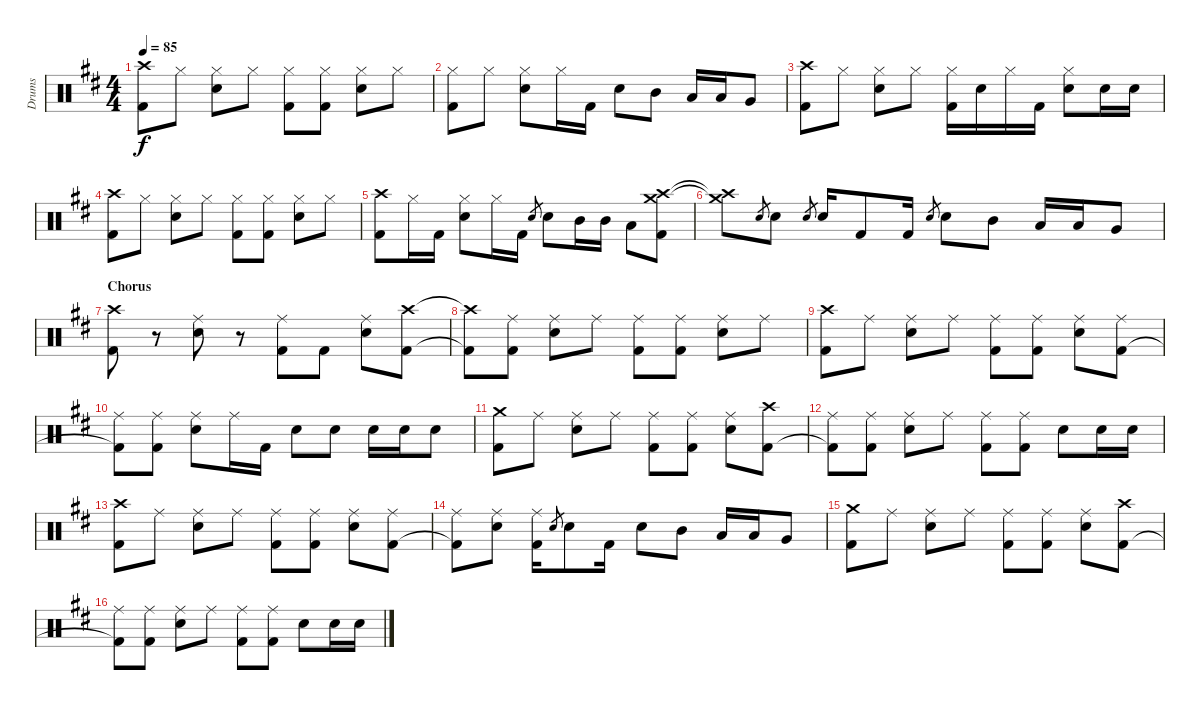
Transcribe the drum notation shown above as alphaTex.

\track ("Drums" "Drums") {instrument percussion}
\staff {score}
\articulation defaults
\ts (4 4)
\tempo 85
\clef neutral
\ks d
("Crash high (hit)" "Kick (hit) 2").8{dy f} "Hi-Hat (closed)".8 ("Hi-Hat (closed)" "Snare (hit) 2").8 "Hi-Hat (closed)".8 ("Hi-Hat (closed)" "Kick (hit) 2").8 ("Hi-Hat (closed)" "Kick (hit) 2").8 ("Hi-Hat (closed)" "Snare (hit) 2").8 "Hi-Hat (closed)".8 |
("Hi-Hat (closed)" "Kick (hit) 2").8 "Hi-Hat (closed)".8 ("Hi-Hat (closed)" "Snare (hit) 2").8 "Hi-Hat (closed)".16 "Kick (hit) 2".16 "Snare (hit) 2".8 "Mid Tom (hit)".8 "Low Tom (hit)".16 "Low Tom (hit)".16 "Very Low Tom (hit)".8 |
("Crash high (hit)" "Kick (hit) 2").8 "Hi-Hat (closed)".8 ("Hi-Hat (closed)" "Snare (hit) 2").8 "Hi-Hat (closed)".8 ("Hi-Hat (closed)" "Kick (hit) 2").16 "Snare (hit) 2".16 "Hi-Hat (closed)".16 "Kick (hit) 2".16 ("Hi-Hat (closed)" "Snare (hit) 2").8 "Snare (hit) 2".16 "Snare (hit) 2".16 |
("Crash high (hit)" "Kick (hit) 2").8 "Hi-Hat (closed)".8 ("Hi-Hat (closed)" "Snare (hit) 2").8 "Hi-Hat (closed)".8 ("Hi-Hat (closed)" "Kick (hit) 2").8 ("Hi-Hat (closed)" "Kick (hit) 2").8 ("Hi-Hat (closed)" "Snare (hit) 2").8 "Hi-Hat (closed)".8 |
("Crash high (hit)" "Kick (hit) 2").8 "Hi-Hat (closed)".16 "Kick (hit) 2".16 ("Hi-Hat (closed)" "Snare (hit) 2").8 "Hi-Hat (closed)".16 "Kick (hit) 2".16 "Snare (hit) 2".8{gr} "Snare (hit) 2".8 "Mid Tom (hit)".16 "Mid Tom (hit)".16 "Low Tom (hit)".8 ("Crash medium (hit)" "Crash high (hit)" "Kick (hit) 2").8 |
("Crash medium (hit)"{t} "Crash high (hit)"{t}).8 "Snare (hit) 2".8{gr} "Snare (hit) 2".8 "Snare (hit) 2".8{gr} "Snare (hit) 2".16 "Kick (hit) 2".8 "Kick (hit) 2".16 "Snare (hit) 2".8{gr} "Snare (hit) 2".8 "Mid Tom (hit)".8 "Low Tom (hit)".16 "Low Tom (hit)".16 "Very Low Tom (hit)".8 |
\section ("" "Chorus")
("Crash high (hit)" "Kick (hit) 2").8 r.8 ("Ride (middle)" "Snare (hit) 2").8 r.8 ("Ride (middle)" "Kick (hit) 2").8 "Kick (hit) 2".8 ("Ride (middle)" "Snare (hit) 2").8 ("Crash high (hit)" "Kick (hit) 2").8 |
("Crash high (hit)"{t} "Kick (hit) 2"{t}).8 ("Ride (middle)" "Kick (hit) 2").8 ("Ride (middle)" "Snare (hit) 2").8 "Ride (middle)".8 ("Ride (middle)" "Kick (hit) 2").8 ("Ride (middle)" "Kick (hit) 2").8 ("Ride (middle)" "Snare (hit) 2").8 "Ride (middle)".8 |
("Crash high (hit)" "Kick (hit) 2").8 "Ride (middle)".8 ("Ride (middle)" "Snare (hit) 2").8 "Ride (middle)".8 ("Ride (middle)" "Kick (hit) 2").8 ("Ride (middle)" "Kick (hit) 2").8 ("Ride (middle)" "Snare (hit) 2").8 ("Ride (middle)" "Kick (hit) 2").8 |
("Ride (middle)" "Kick (hit) 2"{t}).8 ("Ride (middle)" "Kick (hit) 2").8 ("Ride (middle)" "Snare (hit) 2").8 "Ride (middle)".16 "Kick (hit) 2".16 "Snare (hit) 2".8 "Snare (hit) 2".8 "Snare (hit) 2".16 "Snare (hit) 2".16 "Snare (hit) 2".8 |
("Crash medium (hit)" "Kick (hit) 2").8 "Ride (middle)".8 ("Ride (middle)" "Snare (hit) 2").8 "Ride (middle)".8 ("Ride (middle)" "Kick (hit) 2").8 ("Ride (middle)" "Kick (hit) 2").8 ("Ride (middle)" "Snare (hit) 2").8 ("Crash high (hit)" "Kick (hit) 2").8 |
("Ride (middle)" "Kick (hit) 2"{t}).8 ("Ride (middle)" "Kick (hit) 2").8 ("Ride (middle)" "Snare (hit) 2").8 "Ride (middle)".8 ("Ride (middle)" "Kick (hit) 2").8 ("Ride (middle)" "Kick (hit) 2").8 "Snare (hit) 2".8 "Snare (hit) 2".16 "Snare (hit) 2".16 |
("Crash high (hit)" "Kick (hit) 2").8 "Ride (middle)".8 ("Ride (middle)" "Snare (hit) 2").8 "Ride (middle)".8 ("Ride (middle)" "Kick (hit) 2").8 ("Ride (middle)" "Kick (hit) 2").8 ("Ride (middle)" "Snare (hit) 2").8 ("Ride (middle)" "Kick (hit) 2").8 |
("Ride (middle)" "Kick (hit) 2"{t}).8 ("Ride (middle)" "Snare (hit) 2").8 ("Ride (middle)" "Kick (hit) 2").16 "Snare (hit) 2".8{gr} "Snare (hit) 2".8 "Kick (hit) 2".16 "Snare (hit) 2".8 "Mid Tom (hit)".8 "Low Tom (hit)".16 "Low Tom (hit)".16 "Very Low Tom (hit)".8 |
("Crash medium (hit)" "Kick (hit) 2").8 "Ride (middle)".8 ("Ride (middle)" "Snare (hit) 2").8 "Ride (middle)".8 ("Ride (middle)" "Kick (hit) 2").8 ("Ride (middle)" "Kick (hit) 2").8 ("Ride (middle)" "Snare (hit) 2").8 ("Crash high (hit)" "Kick (hit) 2").8 |
("Ride (middle)" "Kick (hit) 2"{t}).8 ("Ride (middle)" "Kick (hit) 2").8 ("Ride (middle)" "Snare (hit) 2").8 "Ride (middle)".8 ("Ride (middle)" "Kick (hit) 2").8 ("Ride (middle)" "Kick (hit) 2").8 "Snare (hit) 2".8 "Snare (hit) 2".16 "Snare (hit) 2".16
